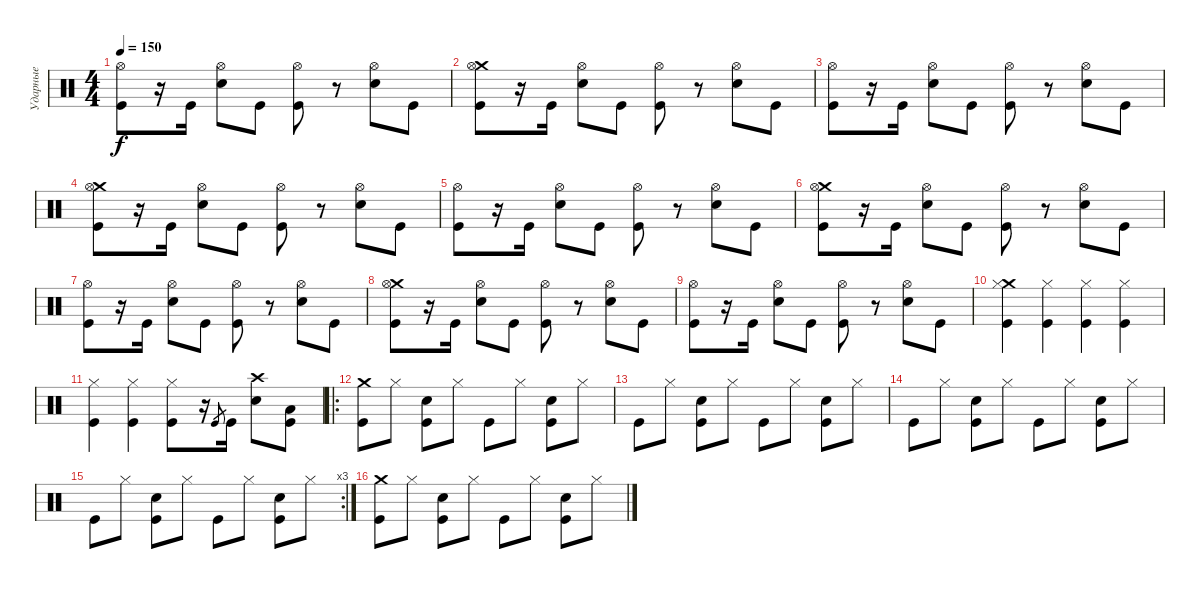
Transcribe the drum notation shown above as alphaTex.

\track ("Ударные" "Ударные") {instrument percussion}
\staff {score}
\articulation defaults
\ts (4 4)
\tempo 150
\clef neutral
\ks c
("Hi-Hat (open)" "Kick (hit)").8{dy f} r.16 "Kick (hit)".16 ("Hi-Hat (open)" "Electric Snare (hit)").8 "Kick (hit)".8 ("Hi-Hat (open)" "Kick (hit)").8 r.8 ("Hi-Hat (open)" "Electric Snare (hit)").8 "Kick (hit)".8 |
("Crash medium (hit)" "Hi-Hat (open)" "Kick (hit)").8 r.16 "Kick (hit)".16 ("Hi-Hat (open)" "Electric Snare (hit)").8 "Kick (hit)".8 ("Hi-Hat (open)" "Kick (hit)").8 r.8 ("Hi-Hat (open)" "Electric Snare (hit)").8 "Kick (hit)".8 |
("Hi-Hat (open)" "Kick (hit)").8 r.16 "Kick (hit)".16 ("Hi-Hat (open)" "Electric Snare (hit)").8 "Kick (hit)".8 ("Hi-Hat (open)" "Kick (hit)").8 r.8 ("Hi-Hat (open)" "Electric Snare (hit)").8 "Kick (hit)".8 |
("Crash medium (hit)" "Hi-Hat (open)" "Kick (hit)").8 r.16 "Kick (hit)".16 ("Hi-Hat (open)" "Electric Snare (hit)").8 "Kick (hit)".8 ("Hi-Hat (open)" "Kick (hit)").8 r.8 ("Hi-Hat (open)" "Electric Snare (hit)").8 "Kick (hit)".8 |
("Hi-Hat (open)" "Kick (hit)").8 r.16 "Kick (hit)".16 ("Hi-Hat (open)" "Electric Snare (hit)").8 "Kick (hit)".8 ("Hi-Hat (open)" "Kick (hit)").8 r.8 ("Hi-Hat (open)" "Electric Snare (hit)").8 "Kick (hit)".8 |
("Crash medium (hit)" "Hi-Hat (open)" "Kick (hit)").8 r.16 "Kick (hit)".16 ("Hi-Hat (open)" "Electric Snare (hit)").8 "Kick (hit)".8 ("Hi-Hat (open)" "Kick (hit)").8 r.8 ("Hi-Hat (open)" "Electric Snare (hit)").8 "Kick (hit)".8 |
("Hi-Hat (open)" "Kick (hit)").8 r.16 "Kick (hit)".16 ("Hi-Hat (open)" "Electric Snare (hit)").8 "Kick (hit)".8 ("Hi-Hat (open)" "Kick (hit)").8 r.8 ("Hi-Hat (open)" "Electric Snare (hit)").8 "Kick (hit)".8 |
("Crash medium (hit)" "Hi-Hat (open)" "Kick (hit)").8 r.16 "Kick (hit)".16 ("Hi-Hat (open)" "Electric Snare (hit)").8 "Kick (hit)".8 ("Hi-Hat (open)" "Kick (hit)").8 r.8 ("Hi-Hat (open)" "Electric Snare (hit)").8 "Kick (hit)".8 |
("Hi-Hat (open)" "Kick (hit)").8 r.16 "Kick (hit)".16 ("Hi-Hat (open)" "Electric Snare (hit)").8 "Kick (hit)".8 ("Hi-Hat (open)" "Kick (hit)").8 r.8 ("Hi-Hat (open)" "Electric Snare (hit)").8 "Kick (hit)".8 |
("Crash medium (hit)" "Hi-Hat (closed)" "Kick (hit)").4 ("Hi-Hat (closed)" "Kick (hit)").4 ("Hi-Hat (closed)" "Kick (hit)").4 ("Hi-Hat (closed)" "Kick (hit)").4 |
("Hi-Hat (closed)" "Kick (hit)").4 ("Hi-Hat (closed)" "Kick (hit)").4 ("Hi-Hat (closed)" "Kick (hit)").8 r.16 "Kick (hit)".8{gr} "Kick (hit)".16 ("Crash high (hit)" "Electric Snare (hit)").8 ("Low Floor Tom (hit)" "Kick (hit)").8 |
\ro
("Crash medium (hit)" "Kick (hit)").8 "Hi-Hat (closed)".8 ("Electric Snare (hit)" "Kick (hit)").8 "Hi-Hat (closed)".8 "Kick (hit)".8 "Hi-Hat (closed)".8 ("Electric Snare (hit)" "Kick (hit)").8 "Hi-Hat (closed)".8 |
"Kick (hit)".8 "Hi-Hat (closed)".8 ("Electric Snare (hit)" "Kick (hit)").8 "Hi-Hat (closed)".8 "Kick (hit)".8 "Hi-Hat (closed)".8 ("Electric Snare (hit)" "Kick (hit)").8 "Hi-Hat (closed)".8 |
"Kick (hit)".8 "Hi-Hat (closed)".8 ("Electric Snare (hit)" "Kick (hit)").8 "Hi-Hat (closed)".8 "Kick (hit)".8 "Hi-Hat (closed)".8 ("Electric Snare (hit)" "Kick (hit)").8 "Hi-Hat (closed)".8 |
\rc 3 "Kick (hit)".8 "Hi-Hat (closed)".8
("Electric Snare (hit)" "Kick (hit)").8 "Hi-Hat (closed)".8 "Kick (hit)".8 "Hi-Hat (closed)".8 ("Electric Snare (hit)" "Kick (hit)").8 "Hi-Hat (closed)".8 |
("Crash medium (hit)" "Kick (hit)").8 "Hi-Hat (closed)".8 ("Electric Snare (hit)" "Kick (hit)").8 "Hi-Hat (closed)".8 "Kick (hit)".8 "Hi-Hat (closed)".8 ("Electric Snare (hit)" "Kick (hit)").8 "Hi-Hat (closed)".8
